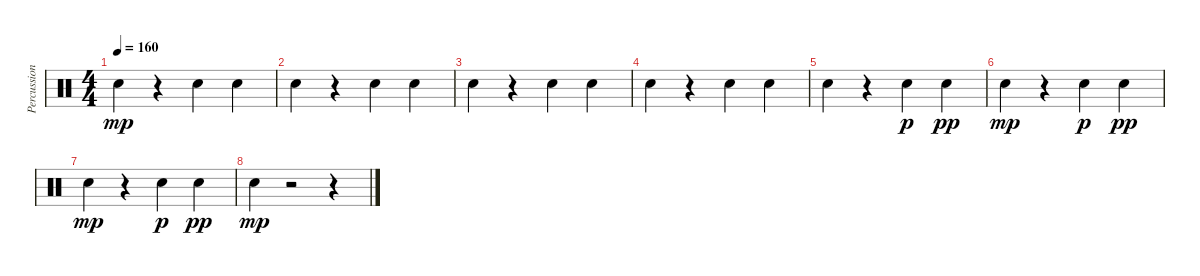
\track ("Percussions" "Percussion") {instrument percussion}
\staff {score}
\articulation defaults
\ts (4 4)
\tempo 160
\clef neutral
\ks c "Snare (hit) 2".4{dy mp}
r.4 "Snare (hit) 2".4 "Snare (hit) 2".4 |
"Snare (hit) 2".4 r.4 "Snare (hit) 2".4 "Snare (hit) 2".4 |
"Snare (hit) 2".4 r.4 "Snare (hit) 2".4 "Snare (hit) 2".4 |
"Snare (hit) 2".4 r.4 "Snare (hit) 2".4 "Snare (hit) 2".4 |
"Snare (hit) 2".4 r.4 "Snare (hit) 2".4{dy p} "Snare (hit) 2".4{dy pp} |
"Snare (hit) 2".4{dy mp} r.4 "Snare (hit) 2".4{dy p} "Snare (hit) 2".4{dy pp} |
"Snare (hit) 2".4{dy mp} r.4 "Snare (hit) 2".4{dy p} "Snare (hit) 2".4{dy pp} |
"Snare (hit) 2".4{dy mp} r.2 r.4
